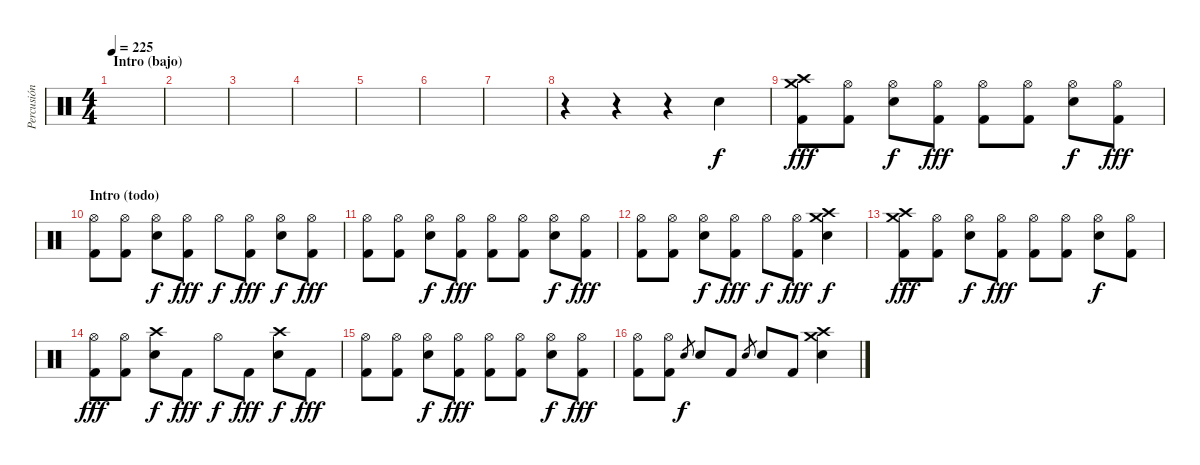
\track ("Percusión" "Percusión") {instrument percussion}
\staff {score}
\articulation defaults
\ts (4 4)
\section ("" "Intro (bajo)")
\tempo 225
\clef neutral
\ks c
|
|
|
|
|
|
|
r.4 r.4 r.4 "Electric Snare (hit)".4 |
("Kick (hit) 2" "Crash medium (hit)" "Crash high (hit)").8{dy fff} ("Kick (hit) 2" "Hi-Hat (open)").8 ("Electric Snare (hit)" "Hi-Hat (open)").8{dy f} ("Kick (hit) 2" "Hi-Hat (open)").8{dy fff} ("Kick (hit) 2" "Hi-Hat (open)").8 ("Kick (hit) 2" "Hi-Hat (open)").8 ("Electric Snare (hit)" "Hi-Hat (open)").8{dy f} ("Kick (hit) 2" "Hi-Hat (open)").8{dy fff} |
\section ("" "Intro (todo)")
("Kick (hit) 2" "Hi-Hat (open)").8 ("Kick (hit) 2" "Hi-Hat (open)").8 ("Electric Snare (hit)" "Hi-Hat (open)").8{dy f} ("Kick (hit) 2" "Hi-Hat (open)").8{dy fff} "Hi-Hat (open)".8{dy f} ("Kick (hit) 2" "Hi-Hat (open)").8{dy fff} ("Electric Snare (hit)" "Hi-Hat (open)").8{dy f} ("Kick (hit) 2" "Hi-Hat (open)").8{dy fff} |
("Kick (hit) 2" "Hi-Hat (open)").8 ("Kick (hit) 2" "Hi-Hat (open)").8 ("Electric Snare (hit)" "Hi-Hat (open)").8{dy f} ("Kick (hit) 2" "Hi-Hat (open)").8{dy fff} ("Kick (hit) 2" "Hi-Hat (open)").8 ("Kick (hit) 2" "Hi-Hat (open)").8 ("Electric Snare (hit)" "Hi-Hat (open)").8{dy f} ("Kick (hit) 2" "Hi-Hat (open)").8{dy fff} |
("Kick (hit) 2" "Hi-Hat (open)").8 ("Kick (hit) 2" "Hi-Hat (open)").8 ("Electric Snare (hit)" "Hi-Hat (open)").8{dy f} ("Kick (hit) 2" "Hi-Hat (open)").8{dy fff} "Hi-Hat (open)".8{dy f} ("Kick (hit) 2" "Hi-Hat (open)").8{dy fff} ("Electric Snare (hit)" "Crash medium (hit)" "Crash high (hit)").4{dy f} |
("Kick (hit) 2" "Crash medium (hit)" "Crash high (hit)").8{dy fff} ("Kick (hit) 2" "Hi-Hat (open)").8 ("Electric Snare (hit)" "Hi-Hat (open)").8{dy f} ("Kick (hit) 2" "Hi-Hat (open)").8{dy fff} ("Kick (hit) 2" "Hi-Hat (open)").8 ("Kick (hit) 2" "Hi-Hat (open)").8 ("Electric Snare (hit)" "Hi-Hat (open)").8{dy f} ("Kick (hit) 2" "Hi-Hat (open)").8 |
("Kick (hit) 2" "Hi-Hat (open)").8{dy fff} ("Kick (hit) 2" "Hi-Hat (open)").8 ("Electric Snare (hit)" "Crash high (hit)").8{dy f} "Kick (hit) 2".8{dy fff} "Hi-Hat (open)".8{dy f} "Kick (hit) 2".8{dy fff} ("Electric Snare (hit)" "Crash high (hit)").8{dy f} "Kick (hit) 2".8{dy fff} |
("Kick (hit) 2" "Hi-Hat (open)").8 ("Kick (hit) 2" "Hi-Hat (open)").8 ("Electric Snare (hit)" "Hi-Hat (open)").8{dy f} ("Kick (hit) 2" "Hi-Hat (open)").8{dy fff} ("Kick (hit) 2" "Hi-Hat (open)").8 ("Kick (hit) 2" "Hi-Hat (open)").8 ("Electric Snare (hit)" "Hi-Hat (open)").8{dy f} ("Kick (hit) 2" "Hi-Hat (open)").8{dy fff} |
("Kick (hit) 2" "Hi-Hat (open)").8 ("Kick (hit) 2" "Hi-Hat (open)").8 "Electric Snare (hit)".8{gr dy f} "Electric Snare (hit)".8 "Kick (hit) 2".8 "Electric Snare (hit)".8{gr} "Electric Snare (hit)".8 "Kick (hit) 2".8 ("Electric Snare (hit)" "Crash high (hit)" "Crash medium (hit)").4
